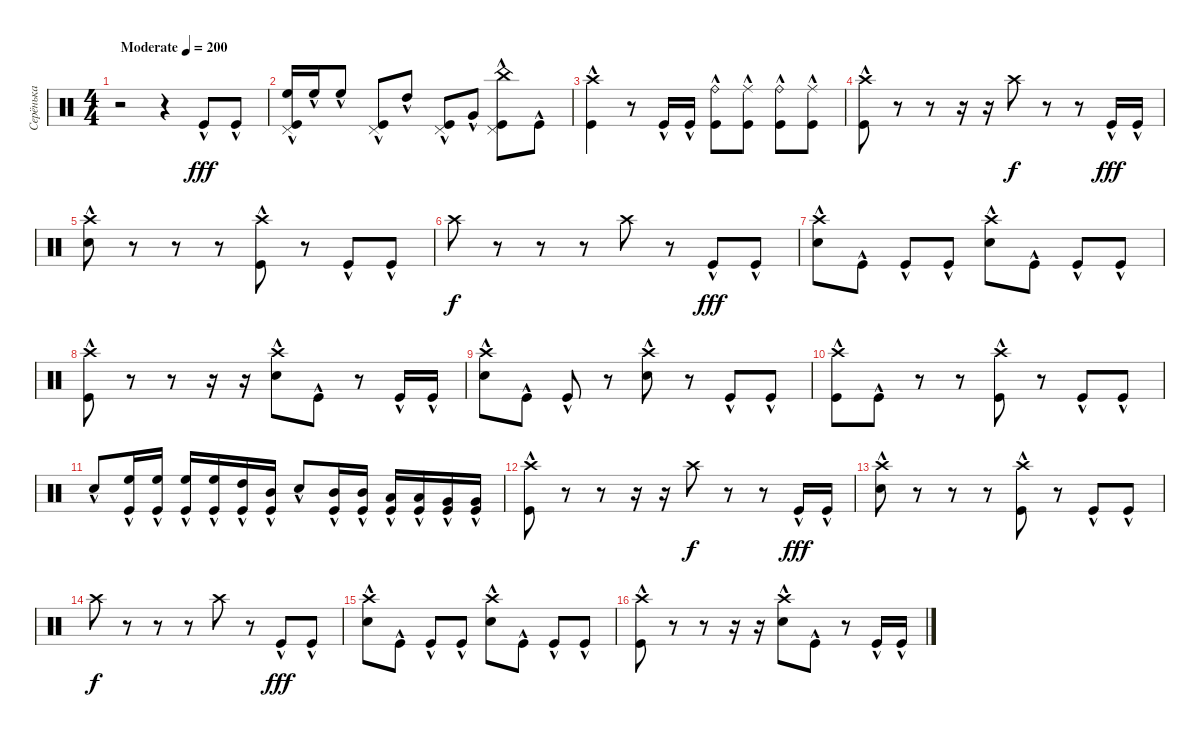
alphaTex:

\track ("Серёнька" "Серёнька") {instrument percussion}
\staff {score}
\articulation defaults
\ts (4 4)
\tempo (200 "Moderate")
\clef neutral
\ks c
r.2{dy fff} r.4 "Kick (hit)"{hac}.8 "Kick (hit)"{hac}.8 |
("High Floor Tom (hit)"{hac} "Kick (hit)"{hac} "Pedal Hi-Hat (hit)").16 "High Floor Tom (hit)"{hac}.16 "High Floor Tom (hit)"{hac}.8 ("Kick (hit)"{hac} "Pedal Hi-Hat (hit)").8 "High Tom (hit)"{hac}.8 ("Kick (hit)"{hac} "Pedal Hi-Hat (hit)").8 "Very Low Tom (hit)"{hac}.8 ("China (hit)"{hac} "Kick (hit)"{hac} "Pedal Hi-Hat (hit)").8 "Kick (hit)"{hac}.8 |
("Kick (hit)"{hac} "Crash high (hit)"{hac}).4 r.8 "Kick (hit)"{hac}.16 "Kick (hit)"{hac}.16 ("Ride (bell)"{hac} "Kick (hit)"{hac}).8 ("Ride (middle)"{hac} "Kick (hit)"{hac}).8 ("Ride (bell)"{hac} "Kick (hit)"{hac}).8 ("Ride (middle)"{hac} "Kick (hit)"{hac}).8 |
("Crash high (hit)"{hac} "Kick (hit)"{hac}).8 r.8 r.8 r.16 r.16 "Crash high (hit)".8{dy f} r.8 r.8 "Kick (hit)"{hac}.16{dy fff} "Kick (hit)"{hac}.16 |
("Crash high (hit)" "Snare (hit) 2"{hac}).8 r.8 r.8 r.8 ("Crash high (hit)" "Kick (hit)"{hac}).8 r.8 "Kick (hit)"{hac}.8 "Kick (hit)"{hac}.8 |
"Crash high (hit)".8{dy f} r.8 r.8 r.8 "Crash high (hit)".8 r.8 "Kick (hit)"{hac}.8{dy fff} "Kick (hit)"{hac}.8 |
("Crash high (hit)" "Snare (hit) 2"{hac}).8 "Kick (hit)"{hac}.8 "Kick (hit)"{hac}.8 "Kick (hit)"{hac}.8 ("Crash high (hit)" "Snare (hit) 2"{hac}).8 "Kick (hit)"{hac}.8 "Kick (hit)"{hac}.8 "Kick (hit)"{hac}.8 |
("Crash high (hit)"{hac} "Kick (hit)"{hac}).8 r.8 r.8 r.16 r.16 ("Crash high (hit)" "Snare (hit) 2"{hac}).8 "Kick (hit)"{hac}.8 r.8 "Kick (hit)"{hac}.16 "Kick (hit)"{hac}.16 |
("Crash high (hit)" "Snare (hit) 2"{hac}).8 "Kick (hit)"{hac}.8 "Kick (hit)"{hac}.8 r.8 ("Crash high (hit)" "Snare (hit) 2"{hac}).8 r.8 "Kick (hit)"{hac}.8 "Kick (hit)"{hac}.8 |
("Crash high (hit)" "Kick (hit)"{hac}).8 "Kick (hit)"{hac}.8 r.8 r.8 ("Crash high (hit)" "Kick (hit)"{hac}).8 r.8 "Kick (hit)"{hac}.8 "Kick (hit)"{hac}.8 |
"Snare (hit) 2"{hac}.8 ("High Floor Tom (hit)" "Kick (hit)"{hac}).16 ("High Floor Tom (hit)" "Kick (hit)"{hac}).16 ("High Floor Tom (hit)" "Kick (hit)"{hac}).16 ("High Floor Tom (hit)" "Kick (hit)"{hac}).16 ("High Tom (hit)" "Kick (hit)"{hac}).16 ("Mid Tom (hit)" "Kick (hit)"{hac}).16 "Snare (hit) 2"{hac}.8 ("Mid Tom (hit)"{hac} "Kick (hit)"{hac}).16 ("Mid Tom (hit)"{hac} "Kick (hit)"{hac}).16 ("Low Tom (hit)"{hac} "Kick (hit)"{hac}).16 ("Low Tom (hit)"{hac} "Kick (hit)"{hac}).16 ("Very Low Tom (hit)"{hac} "Kick (hit)"{hac}).16 ("Very Low Tom (hit)"{hac} "Kick (hit)"{hac}).16 |
("Crash high (hit)"{hac} "Kick (hit)"{hac}).8 r.8 r.8 r.16 r.16 "Crash high (hit)".8{dy f} r.8 r.8 "Kick (hit)"{hac}.16{dy fff} "Kick (hit)"{hac}.16 |
("Crash high (hit)" "Snare (hit) 2"{hac}).8 r.8 r.8 r.8 ("Crash high (hit)" "Kick (hit)"{hac}).8 r.8 "Kick (hit)"{hac}.8 "Kick (hit)"{hac}.8 |
"Crash high (hit)".8{dy f} r.8 r.8 r.8 "Crash high (hit)".8 r.8 "Kick (hit)"{hac}.8{dy fff} "Kick (hit)"{hac}.8 |
("Crash high (hit)" "Snare (hit) 2"{hac}).8 "Kick (hit)"{hac}.8 "Kick (hit)"{hac}.8 "Kick (hit)"{hac}.8 ("Crash high (hit)" "Snare (hit) 2"{hac}).8 "Kick (hit)"{hac}.8 "Kick (hit)"{hac}.8 "Kick (hit)"{hac}.8 |
("Crash high (hit)"{hac} "Kick (hit)"{hac}).8 r.8 r.8 r.16 r.16 ("Crash high (hit)" "Snare (hit) 2"{hac}).8 "Kick (hit)"{hac}.8 r.8 "Kick (hit)"{hac}.16 "Kick (hit)"{hac}.16
